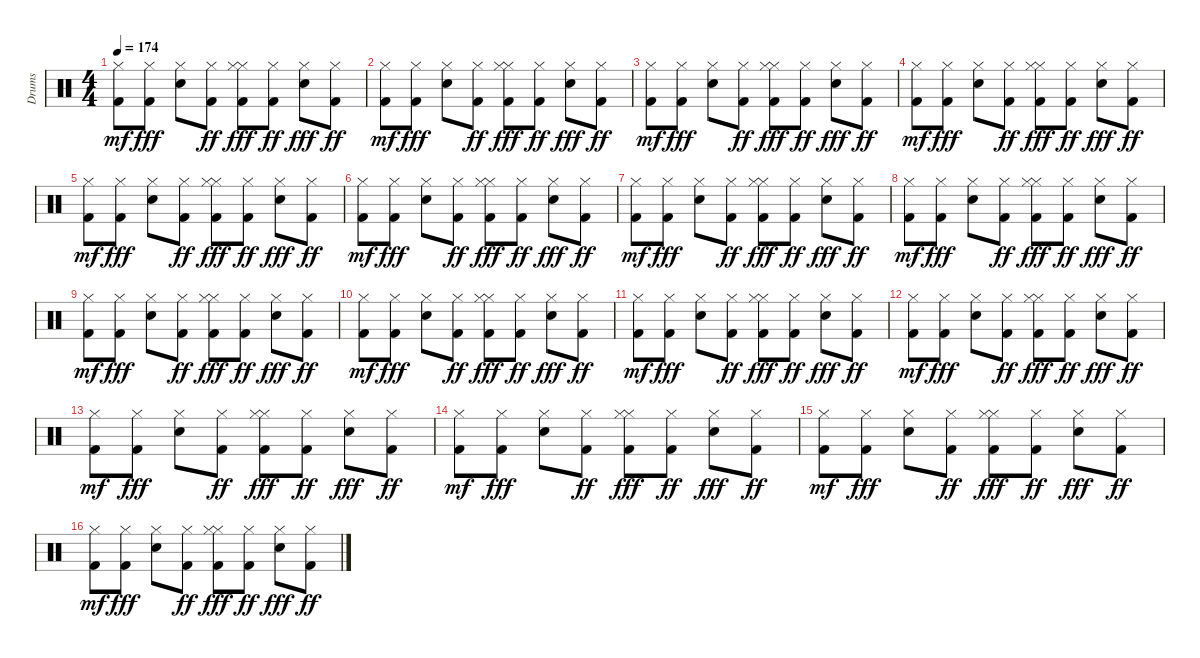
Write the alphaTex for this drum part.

\track ("Drums" "Drums") {instrument percussion}
\staff {score}
\articulation defaults
\ts (4 4)
\tempo 174
\clef neutral
\ks c
("Kick (hit) 2" "Hi-Hat (closed)").8{dy mf} ("Hi-Hat (closed)" "Kick (hit) 2").8{dy fff} ("Hi-Hat (closed)" "Snare (hit) 2").8 ("Hi-Hat (closed)" "Kick (hit) 2").8{dy ff} ("Hi-Hat (closed)" "Hi-Hat (closed)" "Kick (hit) 2").8{dy fff} ("Hi-Hat (closed)" "Kick (hit) 2").8{dy ff} ("Hi-Hat (closed)" "Snare (hit) 2").8{dy fff} ("Hi-Hat (closed)" "Kick (hit) 2").8{dy ff} |
("Kick (hit) 2" "Hi-Hat (closed)").8{dy mf} ("Hi-Hat (closed)" "Kick (hit) 2").8{dy fff} ("Hi-Hat (closed)" "Snare (hit) 2").8 ("Hi-Hat (closed)" "Kick (hit) 2").8{dy ff} ("Hi-Hat (closed)" "Hi-Hat (closed)" "Kick (hit) 2").8{dy fff} ("Hi-Hat (closed)" "Kick (hit) 2").8{dy ff} ("Hi-Hat (closed)" "Snare (hit) 2").8{dy fff} ("Hi-Hat (closed)" "Kick (hit) 2").8{dy ff} |
("Kick (hit) 2" "Hi-Hat (closed)").8{dy mf} ("Hi-Hat (closed)" "Kick (hit) 2").8{dy fff} ("Hi-Hat (closed)" "Snare (hit) 2").8 ("Hi-Hat (closed)" "Kick (hit) 2").8{dy ff} ("Hi-Hat (closed)" "Hi-Hat (closed)" "Kick (hit) 2").8{dy fff} ("Hi-Hat (closed)" "Kick (hit) 2").8{dy ff} ("Hi-Hat (closed)" "Snare (hit) 2").8{dy fff} ("Hi-Hat (closed)" "Kick (hit) 2").8{dy ff} |
("Kick (hit) 2" "Hi-Hat (closed)").8{dy mf} ("Hi-Hat (closed)" "Kick (hit) 2").8{dy fff} ("Hi-Hat (closed)" "Snare (hit) 2").8 ("Hi-Hat (closed)" "Kick (hit) 2").8{dy ff} ("Hi-Hat (closed)" "Hi-Hat (closed)" "Kick (hit) 2").8{dy fff} ("Hi-Hat (closed)" "Kick (hit) 2").8{dy ff} ("Hi-Hat (closed)" "Snare (hit) 2").8{dy fff} ("Hi-Hat (closed)" "Kick (hit) 2").8{dy ff} |
("Kick (hit) 2" "Hi-Hat (closed)").8{dy mf} ("Hi-Hat (closed)" "Kick (hit) 2").8{dy fff} ("Hi-Hat (closed)" "Snare (hit) 2").8 ("Hi-Hat (closed)" "Kick (hit) 2").8{dy ff} ("Hi-Hat (closed)" "Hi-Hat (closed)" "Kick (hit) 2").8{dy fff} ("Hi-Hat (closed)" "Kick (hit) 2").8{dy ff} ("Hi-Hat (closed)" "Snare (hit) 2").8{dy fff} ("Hi-Hat (closed)" "Kick (hit) 2").8{dy ff} |
("Kick (hit) 2" "Hi-Hat (closed)").8{dy mf} ("Hi-Hat (closed)" "Kick (hit) 2").8{dy fff} ("Hi-Hat (closed)" "Snare (hit) 2").8 ("Hi-Hat (closed)" "Kick (hit) 2").8{dy ff} ("Hi-Hat (closed)" "Hi-Hat (closed)" "Kick (hit) 2").8{dy fff} ("Hi-Hat (closed)" "Kick (hit) 2").8{dy ff} ("Hi-Hat (closed)" "Snare (hit) 2").8{dy fff} ("Hi-Hat (closed)" "Kick (hit) 2").8{dy ff} |
("Kick (hit) 2" "Hi-Hat (closed)").8{dy mf} ("Hi-Hat (closed)" "Kick (hit) 2").8{dy fff} ("Hi-Hat (closed)" "Snare (hit) 2").8 ("Hi-Hat (closed)" "Kick (hit) 2").8{dy ff} ("Hi-Hat (closed)" "Hi-Hat (closed)" "Kick (hit) 2").8{dy fff} ("Hi-Hat (closed)" "Kick (hit) 2").8{dy ff} ("Hi-Hat (closed)" "Snare (hit) 2").8{dy fff} ("Hi-Hat (closed)" "Kick (hit) 2").8{dy ff} |
("Kick (hit) 2" "Hi-Hat (closed)").8{dy mf} ("Hi-Hat (closed)" "Kick (hit) 2").8{dy fff} ("Hi-Hat (closed)" "Snare (hit) 2").8 ("Hi-Hat (closed)" "Kick (hit) 2").8{dy ff} ("Hi-Hat (closed)" "Hi-Hat (closed)" "Kick (hit) 2").8{dy fff} ("Hi-Hat (closed)" "Kick (hit) 2").8{dy ff} ("Hi-Hat (closed)" "Snare (hit) 2").8{dy fff} ("Hi-Hat (closed)" "Kick (hit) 2").8{dy ff} |
("Kick (hit) 2" "Hi-Hat (closed)").8{dy mf} ("Hi-Hat (closed)" "Kick (hit) 2").8{dy fff} ("Hi-Hat (closed)" "Snare (hit) 2").8 ("Hi-Hat (closed)" "Kick (hit) 2").8{dy ff} ("Hi-Hat (closed)" "Hi-Hat (closed)" "Kick (hit) 2").8{dy fff} ("Hi-Hat (closed)" "Kick (hit) 2").8{dy ff} ("Hi-Hat (closed)" "Snare (hit) 2").8{dy fff} ("Hi-Hat (closed)" "Kick (hit) 2").8{dy ff} |
("Kick (hit) 2" "Hi-Hat (closed)").8{dy mf} ("Hi-Hat (closed)" "Kick (hit) 2").8{dy fff} ("Hi-Hat (closed)" "Snare (hit) 2").8 ("Hi-Hat (closed)" "Kick (hit) 2").8{dy ff} ("Hi-Hat (closed)" "Hi-Hat (closed)" "Kick (hit) 2").8{dy fff} ("Hi-Hat (closed)" "Kick (hit) 2").8{dy ff} ("Hi-Hat (closed)" "Snare (hit) 2").8{dy fff} ("Hi-Hat (closed)" "Kick (hit) 2").8{dy ff} |
("Kick (hit) 2" "Hi-Hat (closed)").8{dy mf} ("Hi-Hat (closed)" "Kick (hit) 2").8{dy fff} ("Hi-Hat (closed)" "Snare (hit) 2").8 ("Hi-Hat (closed)" "Kick (hit) 2").8{dy ff} ("Hi-Hat (closed)" "Hi-Hat (closed)" "Kick (hit) 2").8{dy fff} ("Hi-Hat (closed)" "Kick (hit) 2").8{dy ff} ("Hi-Hat (closed)" "Snare (hit) 2").8{dy fff} ("Hi-Hat (closed)" "Kick (hit) 2").8{dy ff} |
("Kick (hit) 2" "Hi-Hat (closed)").8{dy mf} ("Hi-Hat (closed)" "Kick (hit) 2").8{dy fff} ("Hi-Hat (closed)" "Snare (hit) 2").8 ("Hi-Hat (closed)" "Kick (hit) 2").8{dy ff} ("Hi-Hat (closed)" "Hi-Hat (closed)" "Kick (hit) 2").8{dy fff} ("Hi-Hat (closed)" "Kick (hit) 2").8{dy ff} ("Hi-Hat (closed)" "Snare (hit) 2").8{dy fff} ("Hi-Hat (closed)" "Kick (hit) 2").8{dy ff} |
("Kick (hit) 2" "Hi-Hat (closed)").8{dy mf} ("Hi-Hat (closed)" "Kick (hit) 2").8{dy fff} ("Hi-Hat (closed)" "Snare (hit) 2").8 ("Hi-Hat (closed)" "Kick (hit) 2").8{dy ff} ("Hi-Hat (closed)" "Hi-Hat (closed)" "Kick (hit) 2").8{dy fff} ("Hi-Hat (closed)" "Kick (hit) 2").8{dy ff} ("Hi-Hat (closed)" "Snare (hit) 2").8{dy fff} ("Hi-Hat (closed)" "Kick (hit) 2").8{dy ff} |
("Kick (hit) 2" "Hi-Hat (closed)").8{dy mf} ("Hi-Hat (closed)" "Kick (hit) 2").8{dy fff} ("Hi-Hat (closed)" "Snare (hit) 2").8 ("Hi-Hat (closed)" "Kick (hit) 2").8{dy ff} ("Hi-Hat (closed)" "Hi-Hat (closed)" "Kick (hit) 2").8{dy fff} ("Hi-Hat (closed)" "Kick (hit) 2").8{dy ff} ("Hi-Hat (closed)" "Snare (hit) 2").8{dy fff} ("Hi-Hat (closed)" "Kick (hit) 2").8{dy ff} |
("Kick (hit) 2" "Hi-Hat (closed)").8{dy mf} ("Hi-Hat (closed)" "Kick (hit) 2").8{dy fff} ("Hi-Hat (closed)" "Snare (hit) 2").8 ("Hi-Hat (closed)" "Kick (hit) 2").8{dy ff} ("Hi-Hat (closed)" "Hi-Hat (closed)" "Kick (hit) 2").8{dy fff} ("Hi-Hat (closed)" "Kick (hit) 2").8{dy ff} ("Hi-Hat (closed)" "Snare (hit) 2").8{dy fff} ("Hi-Hat (closed)" "Kick (hit) 2").8{dy ff} |
("Kick (hit) 2" "Hi-Hat (closed)").8{dy mf} ("Hi-Hat (closed)" "Kick (hit) 2").8{dy fff} ("Hi-Hat (closed)" "Snare (hit) 2").8 ("Hi-Hat (closed)" "Kick (hit) 2").8{dy ff} ("Hi-Hat (closed)" "Hi-Hat (closed)" "Kick (hit) 2").8{dy fff} ("Hi-Hat (closed)" "Kick (hit) 2").8{dy ff} ("Hi-Hat (closed)" "Snare (hit) 2").8{dy fff} ("Hi-Hat (closed)" "Kick (hit) 2").8{dy ff}
